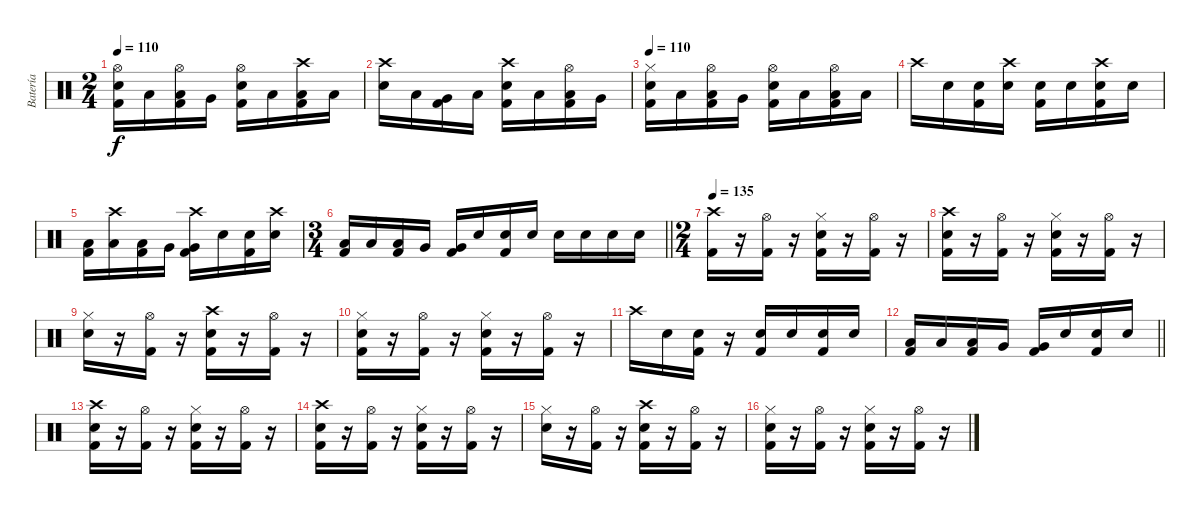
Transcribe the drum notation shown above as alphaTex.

\track ("Batería   (Jony)" "Batería   ") {instrument percussion}
\staff {score}
\articulation defaults
\ts (2 4)
\tempo 110
\clef neutral
\ks c
("Hi-Hat (open)" "Electric Snare (hit)" "Kick (hit) 2").16{dy f} "Low Tom (hit)".16 ("Hi-Hat (open)" "Low Tom (hit)" "Kick (hit) 2").16 "Very Low Tom (hit)".16 ("Hi-Hat (open)" "Electric Snare (hit)" "Kick (hit) 2").16 "Low Tom (hit)".16 ("Crash high (hit)" "Low Tom (hit)" "Kick (hit) 2").16 "Low Tom (hit)".16 |
("Crash high (hit)" "Electric Snare (hit)").16 "Low Tom (hit)".16 ("Very Low Tom (hit)" "Kick (hit) 2").16 "Low Tom (hit)".16 ("Crash high (hit)" "Electric Snare (hit)" "Kick (hit) 2").16 "Low Tom (hit)".16 ("Hi-Hat (open)" "Low Tom (hit)" "Kick (hit) 2").16 "Very Low Tom (hit)".16 |
\tempo 110
("Hi-Hat (closed)" "Electric Snare (hit)" "Kick (hit) 2").16 "Low Tom (hit)".16 ("Hi-Hat (open)" "Low Tom (hit)" "Kick (hit) 2").16 "Very Low Tom (hit)".16 ("Hi-Hat (open)" "Electric Snare (hit)" "Kick (hit) 2").16 "Low Tom (hit)".16 ("Hi-Hat (open)" "Low Tom (hit)" "Kick (hit) 2").16 "Low Tom (hit)".16 |
"Crash high (hit)".16 "Electric Snare (hit)".16 ("Electric Snare (hit)" "Kick (hit) 2").16 ("Crash high (hit)" "Electric Snare (hit)").16 ("Electric Snare (hit)" "Kick (hit) 2").16 "Electric Snare (hit)".16 ("Crash high (hit)" "Electric Snare (hit)" "Kick (hit) 2").16 "Electric Snare (hit)".16 |
("Low Tom (hit)" "Kick (hit) 2").16 ("Crash high (hit)" "Low Tom (hit)").16 ("Low Tom (hit)" "Kick (hit) 2").16 "Very Low Tom (hit)".16 ("Crash high (hit)" "Very Low Tom (hit)" "Kick (hit) 2").16 "Electric Snare (hit)".16 ("Electric Snare (hit)" "Kick (hit) 2").16 ("Crash high (hit)" "Electric Snare (hit)").16 |
\ts (3 4)
\barLineRight lightlight
("Low Tom (hit)" "Kick (hit) 2").16 "Low Tom (hit)".16 ("Low Tom (hit)" "Kick (hit) 2").16 "Very Low Tom (hit)".16 ("Very Low Tom (hit)" "Kick (hit) 2").16 "Electric Snare (hit)".16 ("Electric Snare (hit)" "Kick (hit) 2").16 "Electric Snare (hit)".16 "Electric Snare (hit)".16 "Electric Snare (hit)".16 "Electric Snare (hit)".16 "Electric Snare (hit)".16 |
\ts (2 4)
\tempo 135
("Crash high (hit)" "Kick (hit) 2").16 r.16 ("Hi-Hat (open)" "Kick (hit) 2").16 r.16 ("Hi-Hat (closed)" "Electric Snare (hit)" "Kick (hit) 2").16 r.16 ("Hi-Hat (open)" "Kick (hit) 2").16 r.16 |
("Crash high (hit)" "Electric Snare (hit)" "Kick (hit) 2").16 r.16 ("Hi-Hat (open)" "Kick (hit) 2").16 r.16 ("Hi-Hat (closed)" "Electric Snare (hit)" "Kick (hit) 2").16 r.16 ("Hi-Hat (open)" "Kick (hit) 2").16 r.16 |
("Hi-Hat (closed)" "Electric Snare (hit)").16 r.16 ("Hi-Hat (open)" "Kick (hit) 2").16 r.16 ("Crash high (hit)" "Electric Snare (hit)" "Kick (hit) 2").16 r.16 ("Hi-Hat (open)" "Kick (hit) 2").16 r.16 |
("Hi-Hat (closed)" "Electric Snare (hit)" "Kick (hit) 2").16 r.16 ("Hi-Hat (open)" "Kick (hit) 2").16 r.16 ("Hi-Hat (closed)" "Electric Snare (hit)" "Kick (hit) 2").16 r.16 ("Hi-Hat (open)" "Kick (hit) 2").16 r.16 |
"Crash high (hit)".16 "Electric Snare (hit)".16 ("Electric Snare (hit)" "Kick (hit) 2").16 r.16 ("Electric Snare (hit)" "Kick (hit) 2").16 "Electric Snare (hit)".16 ("Electric Snare (hit)" "Kick (hit) 2").16 "Electric Snare (hit)".16 |
\barLineRight lightlight
("Low Tom (hit)" "Kick (hit) 2").16 "Low Tom (hit)".16 ("Low Tom (hit)" "Kick (hit) 2").16 "Very Low Tom (hit)".16 ("Very Low Tom (hit)" "Kick (hit) 2").16 "Electric Snare (hit)".16 ("Electric Snare (hit)" "Kick (hit) 2").16 "Electric Snare (hit)".16 |
("Crash high (hit)" "Electric Snare (hit)" "Kick (hit) 2").16 r.16 ("Hi-Hat (open)" "Kick (hit) 2").16 r.16 ("Hi-Hat (closed)" "Electric Snare (hit)" "Kick (hit) 2").16 r.16 ("Hi-Hat (open)" "Kick (hit) 2").16 r.16 |
("Crash high (hit)" "Electric Snare (hit)" "Kick (hit) 2").16 r.16 ("Hi-Hat (open)" "Kick (hit) 2").16 r.16 ("Hi-Hat (closed)" "Electric Snare (hit)" "Kick (hit) 2").16 r.16 ("Hi-Hat (open)" "Kick (hit) 2").16 r.16 |
("Hi-Hat (closed)" "Electric Snare (hit)").16 r.16 ("Hi-Hat (open)" "Kick (hit) 2").16 r.16 ("Crash high (hit)" "Electric Snare (hit)" "Kick (hit) 2").16 r.16 ("Hi-Hat (open)" "Kick (hit) 2").16 r.16 |
("Hi-Hat (closed)" "Electric Snare (hit)" "Kick (hit) 2").16 r.16 ("Hi-Hat (open)" "Kick (hit) 2").16 r.16 ("Hi-Hat (closed)" "Electric Snare (hit)" "Kick (hit) 2").16 r.16 ("Hi-Hat (open)" "Kick (hit) 2").16 r.16
